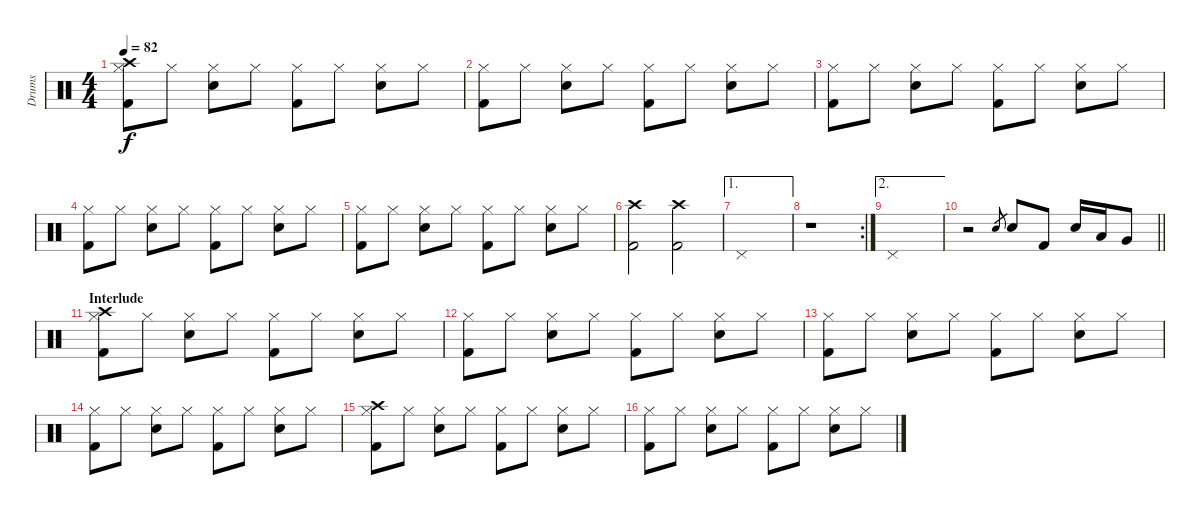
\track ("Drums" "Drums") {instrument percussion}
\staff {score}
\articulation defaults
\ts (4 4)
\tempo 82
\clef neutral
\ks c
("Hi-Hat (closed)" "Kick (hit) 2" "Crash high (hit)").8{dy f} "Hi-Hat (closed)".8 ("Hi-Hat (closed)" "Snare (hit) 2").8 "Hi-Hat (closed)".8 ("Hi-Hat (closed)" "Kick (hit) 2").8 "Hi-Hat (closed)".8 ("Hi-Hat (closed)" "Snare (hit) 2").8 "Hi-Hat (closed)".8 |
("Hi-Hat (closed)" "Kick (hit) 2").8 "Hi-Hat (closed)".8 ("Hi-Hat (closed)" "Snare (hit) 2").8 "Hi-Hat (closed)".8 ("Hi-Hat (closed)" "Kick (hit) 2").8 "Hi-Hat (closed)".8 ("Hi-Hat (closed)" "Snare (hit) 2").8 "Hi-Hat (closed)".8 |
("Hi-Hat (closed)" "Kick (hit) 2").8 "Hi-Hat (closed)".8 ("Hi-Hat (closed)" "Snare (hit) 2").8 "Hi-Hat (closed)".8 ("Hi-Hat (closed)" "Kick (hit) 2").8 "Hi-Hat (closed)".8 ("Hi-Hat (closed)" "Snare (hit) 2").8 "Hi-Hat (closed)".8 |
("Hi-Hat (closed)" "Kick (hit) 2").8 "Hi-Hat (closed)".8 ("Hi-Hat (closed)" "Snare (hit) 2").8 "Hi-Hat (closed)".8 ("Hi-Hat (closed)" "Kick (hit) 2").8 "Hi-Hat (closed)".8 ("Hi-Hat (closed)" "Snare (hit) 2").8 "Hi-Hat (closed)".8 |
("Hi-Hat (closed)" "Kick (hit) 2").8 "Hi-Hat (closed)".8 ("Hi-Hat (closed)" "Snare (hit) 2").8 "Hi-Hat (closed)".8 ("Hi-Hat (closed)" "Kick (hit) 2").8 "Hi-Hat (closed)".8 ("Hi-Hat (closed)" "Snare (hit) 2").8 "Hi-Hat (closed)".8 |
("Kick (hit) 2" "Crash high (hit)").2 ("Kick (hit) 2" "Crash high (hit)").2 |
\ae 1 "Pedal Hi-Hat (hit)".1
|
\rc 2
r.1 |
\ae 2 "Pedal Hi-Hat (hit)".1
|
\barLineRight lightlight
r.2 "Snare (hit) 2".8{gr} "Snare (hit) 2".8 "Kick (hit) 2".8 "Snare (hit) 2".16 "Low Tom (hit)".16 "Very Low Tom (hit)".8 |
\section ("" "Interlude")
("Hi-Hat (closed)" "Kick (hit) 2" "Crash high (hit)").8 "Hi-Hat (closed)".8 ("Hi-Hat (closed)" "Snare (hit) 2").8 "Hi-Hat (closed)".8 ("Hi-Hat (closed)" "Kick (hit) 2").8 "Hi-Hat (closed)".8 ("Hi-Hat (closed)" "Snare (hit) 2").8 "Hi-Hat (closed)".8 |
("Hi-Hat (closed)" "Kick (hit) 2").8 "Hi-Hat (closed)".8 ("Hi-Hat (closed)" "Snare (hit) 2").8 "Hi-Hat (closed)".8 ("Hi-Hat (closed)" "Kick (hit) 2").8 "Hi-Hat (closed)".8 ("Hi-Hat (closed)" "Snare (hit) 2").8 "Hi-Hat (closed)".8 |
("Hi-Hat (closed)" "Kick (hit) 2").8 "Hi-Hat (closed)".8 ("Hi-Hat (closed)" "Snare (hit) 2").8 "Hi-Hat (closed)".8 ("Hi-Hat (closed)" "Kick (hit) 2").8 "Hi-Hat (closed)".8 ("Hi-Hat (closed)" "Snare (hit) 2").8 "Hi-Hat (closed)".8 |
("Hi-Hat (closed)" "Kick (hit) 2").8 "Hi-Hat (closed)".8 ("Hi-Hat (closed)" "Snare (hit) 2").8 "Hi-Hat (closed)".8 ("Hi-Hat (closed)" "Kick (hit) 2").8 "Hi-Hat (closed)".8 ("Hi-Hat (closed)" "Snare (hit) 2").8 "Hi-Hat (closed)".8 |
("Hi-Hat (closed)" "Kick (hit) 2" "Crash high (hit)").8 "Hi-Hat (closed)".8 ("Hi-Hat (closed)" "Snare (hit) 2").8 "Hi-Hat (closed)".8 ("Hi-Hat (closed)" "Kick (hit) 2").8 "Hi-Hat (closed)".8 ("Hi-Hat (closed)" "Snare (hit) 2").8 "Hi-Hat (closed)".8 |
("Hi-Hat (closed)" "Kick (hit) 2").8 "Hi-Hat (closed)".8 ("Hi-Hat (closed)" "Snare (hit) 2").8 "Hi-Hat (closed)".8 ("Hi-Hat (closed)" "Kick (hit) 2").8 "Hi-Hat (closed)".8 ("Hi-Hat (closed)" "Snare (hit) 2").8 "Hi-Hat (closed)".8
